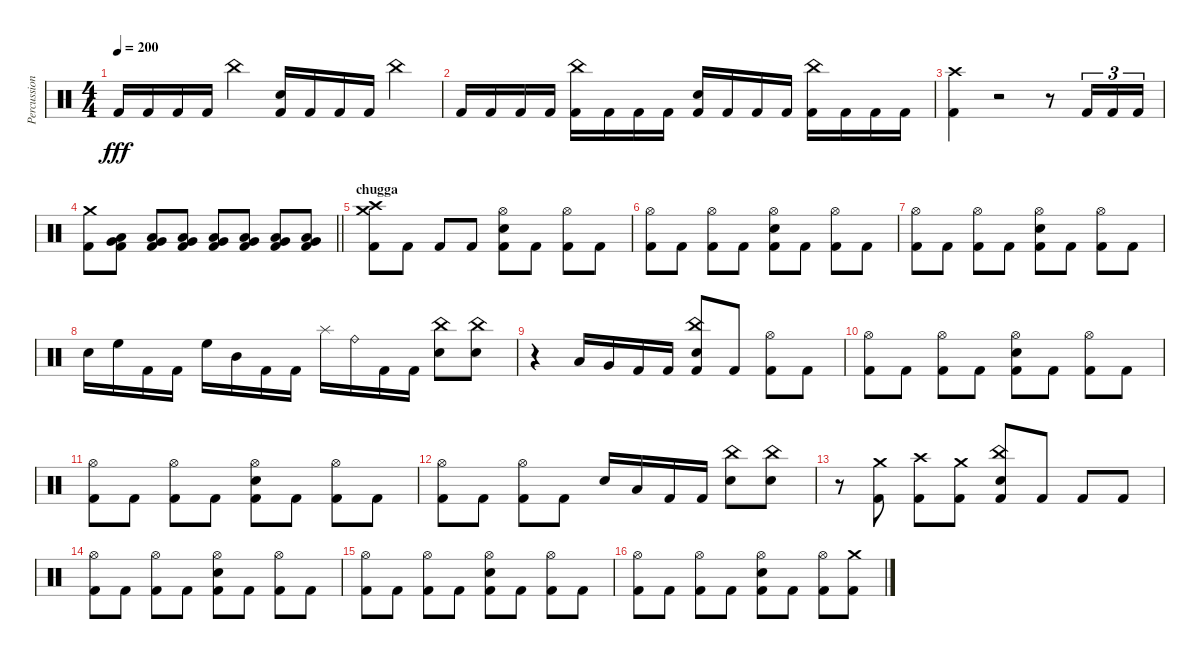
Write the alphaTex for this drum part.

\track ("Percussion" "Percussion") {instrument percussion}
\staff {score}
\articulation defaults
\ts (4 4)
\tempo 200
\clef neutral
\ks c "Kick (hit) 2".16{dy fff} "Kick (hit) 2".16 "Kick (hit) 2".16 "Kick (hit) 2".16 "China (hit)".4
("Snare (hit) 2" "Kick (hit) 2").16 "Kick (hit) 2".16 "Kick (hit) 2".16 "Kick (hit) 2".16 "China (hit)".4 |
"Kick (hit) 2".16 "Kick (hit) 2".16 "Kick (hit) 2".16 "Kick (hit) 2".16 ("China (hit)" "Kick (hit) 2").16 "Kick (hit) 2".16 "Kick (hit) 2".16 "Kick (hit) 2".16 ("Snare (hit) 2" "Kick (hit) 2").16 "Kick (hit) 2".16 "Kick (hit) 2".16 "Kick (hit) 2".16 ("China (hit)" "Kick (hit) 2").16 "Kick (hit) 2".16 "Kick (hit) 2".16 "Kick (hit) 2".16 |
("Crash high (hit)" "Kick (hit) 2").4 r.2 r.8 "Kick (hit) 2".16{tu (3 2)} "Kick (hit) 2".16{tu (3 2)} "Kick (hit) 2".16{tu (3 2)} |
\barLineRight lightlight
("Crash medium (hit)" "Kick (hit) 2").8 ("Very Low Tom (hit)" "Low Floor Tom (hit)" "Kick (hit) 2").8 ("Very Low Tom (hit)" "Low Floor Tom (hit)" "Kick (hit) 2").8 ("Very Low Tom (hit)" "Low Floor Tom (hit)" "Kick (hit) 2").8 ("Very Low Tom (hit)" "Low Floor Tom (hit)" "Kick (hit) 2").8 ("Very Low Tom (hit)" "Low Floor Tom (hit)" "Kick (hit) 2").8 ("Very Low Tom (hit)" "Low Floor Tom (hit)" "Kick (hit) 2").8 ("Very Low Tom (hit)" "Low Floor Tom (hit)" "Kick (hit) 2").8 |
\section ("" "chugga")
("Crash high (hit)" "Crash medium (hit)" "Kick (hit) 2").8 "Kick (hit) 2".8 "Kick (hit) 2".8 "Kick (hit) 2".8 ("Hi-Hat (open)" "Snare (hit) 2" "Kick (hit) 2").8 "Kick (hit) 2".8 ("Hi-Hat (open)" "Kick (hit) 2").8 "Kick (hit) 2".8 |
("Hi-Hat (open)" "Kick (hit) 2").8 "Kick (hit) 2".8 ("Hi-Hat (open)" "Kick (hit) 2").8 "Kick (hit) 2".8 ("Hi-Hat (open)" "Snare (hit) 2" "Kick (hit) 2").8 "Kick (hit) 2".8 ("Hi-Hat (open)" "Kick (hit) 2").8 "Kick (hit) 2".8 |
("Hi-Hat (open)" "Kick (hit) 2").8 "Kick (hit) 2".8 ("Hi-Hat (open)" "Kick (hit) 2").8 "Kick (hit) 2".8 ("Hi-Hat (open)" "Snare (hit) 2" "Kick (hit) 2").8 "Kick (hit) 2".8 ("Hi-Hat (open)" "Kick (hit) 2").8 "Kick (hit) 2".8 |
"Snare (hit) 2".16 "High Floor Tom (hit)".16 "Kick (hit) 2".16 "Kick (hit) 2".16 "High Floor Tom (hit)".16 "Mid Tom (hit)".16 "Kick (hit) 2".16 "Kick (hit) 2".16 "Splash (hit)".16 "Ride (bell)".16 "Kick (hit) 2".16 "Kick (hit) 2".16 ("China (hit)" "Snare (hit) 2").8 ("China (hit)" "Snare (hit) 2").8 |
r.4 "Low Floor Tom (hit)".16 "Very Low Tom (hit)".16 "Kick (hit) 2".16 "Kick (hit) 2".16 ("China (hit)" "Snare (hit) 2" "Kick (hit) 2").8 "Kick (hit) 2".8 ("Hi-Hat (open)" "Kick (hit) 2").8 "Kick (hit) 2".8 |
("Hi-Hat (open)" "Kick (hit) 2").8 "Kick (hit) 2".8 ("Hi-Hat (open)" "Kick (hit) 2").8 "Kick (hit) 2".8 ("Hi-Hat (open)" "Snare (hit) 2" "Kick (hit) 2").8 "Kick (hit) 2".8 ("Hi-Hat (open)" "Kick (hit) 2").8 "Kick (hit) 2".8 |
("Hi-Hat (open)" "Kick (hit) 2").8 "Kick (hit) 2".8 ("Hi-Hat (open)" "Kick (hit) 2").8 "Kick (hit) 2".8 ("Hi-Hat (open)" "Snare (hit) 2" "Kick (hit) 2").8 "Kick (hit) 2".8 ("Hi-Hat (open)" "Kick (hit) 2").8 "Kick (hit) 2".8 |
("Hi-Hat (open)" "Kick (hit) 2").8 "Kick (hit) 2".8 ("Hi-Hat (open)" "Kick (hit) 2").8 "Kick (hit) 2".8 "Snare (hit) 2".16 "Low Tom (hit)".16 "Kick (hit) 2".16 "Kick (hit) 2".16 ("China (hit)" "Snare (hit) 2").8 ("China (hit)" "Snare (hit) 2").8 |
r.8 ("Crash medium (hit)" "Kick (hit) 2").8 ("Crash high (hit)" "Kick (hit) 2").8 ("Crash medium (hit)" "Kick (hit) 2").8 ("China (hit)" "Snare (hit) 2" "Kick (hit) 2").8 "Kick (hit) 2".8 "Kick (hit) 2".8 "Kick (hit) 2".8 |
("Hi-Hat (open)" "Kick (hit) 2").8 "Kick (hit) 2".8 ("Hi-Hat (open)" "Kick (hit) 2").8 "Kick (hit) 2".8 ("Hi-Hat (open)" "Snare (hit) 2" "Kick (hit) 2").8 "Kick (hit) 2".8 ("Hi-Hat (open)" "Kick (hit) 2").8 "Kick (hit) 2".8 |
("Hi-Hat (open)" "Kick (hit) 2").8 "Kick (hit) 2".8 ("Hi-Hat (open)" "Kick (hit) 2").8 "Kick (hit) 2".8 ("Hi-Hat (open)" "Snare (hit) 2" "Kick (hit) 2").8 "Kick (hit) 2".8 ("Hi-Hat (open)" "Kick (hit) 2").8 "Kick (hit) 2".8 |
("Hi-Hat (open)" "Kick (hit) 2").8 "Kick (hit) 2".8 ("Hi-Hat (open)" "Kick (hit) 2").8 "Kick (hit) 2".8 ("Hi-Hat (open)" "Snare (hit) 2" "Kick (hit) 2").8 "Kick (hit) 2".8 ("Hi-Hat (open)" "Kick (hit) 2").8 ("Crash medium (hit)" "Kick (hit) 2").8
